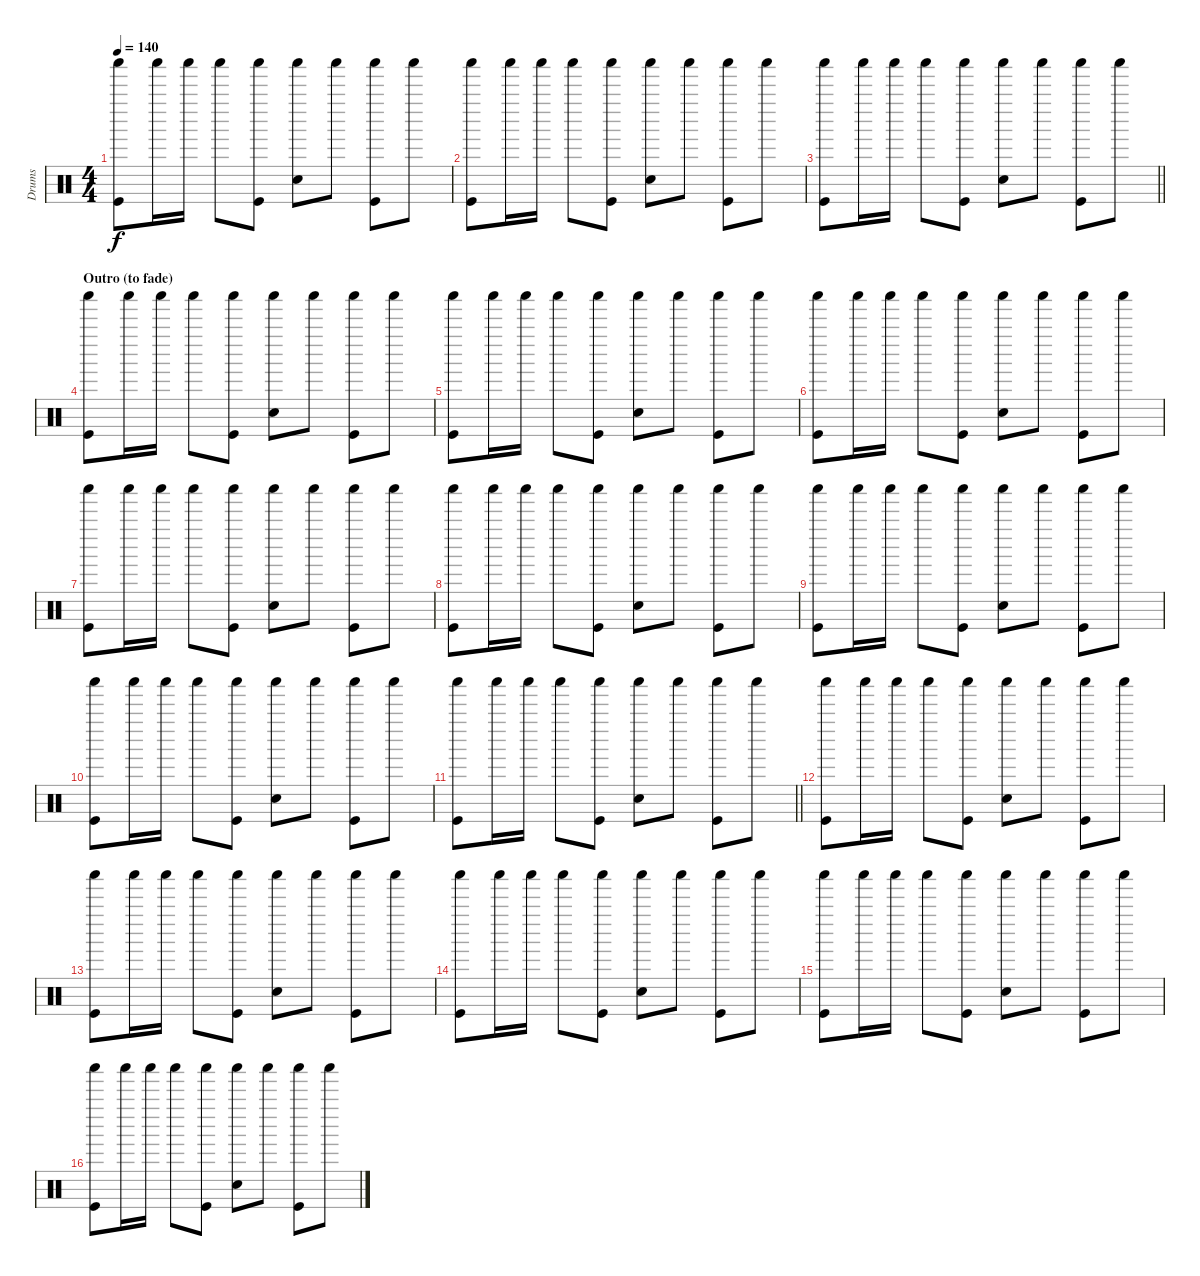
\track ("Drums" "Drums") {instrument percussion}
\staff {score}
\articulation defaults
\ts (4 4)
\tempo 140
\clef neutral
\ks c
("Shaker (hit)" "Kick (hit)").8{dy f} "Shaker (hit)".16 "Shaker (hit)".16 "Shaker (hit)".8 ("Shaker (hit)" "Kick (hit)").8 ("Shaker (hit)" "Hand Clap (hit)").8 "Shaker (hit)".8 ("Shaker (hit)" "Kick (hit)").8 "Shaker (hit)".8 |
("Shaker (hit)" "Kick (hit)").8 "Shaker (hit)".16 "Shaker (hit)".16 "Shaker (hit)".8 ("Shaker (hit)" "Kick (hit)").8 ("Shaker (hit)" "Hand Clap (hit)").8 "Shaker (hit)".8 ("Shaker (hit)" "Kick (hit)").8 "Shaker (hit)".8 |
\barLineRight lightlight
("Shaker (hit)" "Kick (hit)").8 "Shaker (hit)".16 "Shaker (hit)".16 "Shaker (hit)".8 ("Shaker (hit)" "Kick (hit)").8 ("Shaker (hit)" "Hand Clap (hit)").8 "Shaker (hit)".8 ("Shaker (hit)" "Kick (hit)").8 "Shaker (hit)".8 |
\section ("" "Outro (to fade)")
("Shaker (hit)" "Kick (hit)").8 "Shaker (hit)".16 "Shaker (hit)".16 "Shaker (hit)".8 ("Shaker (hit)" "Kick (hit)").8 ("Shaker (hit)" "Hand Clap (hit)").8 "Shaker (hit)".8 ("Shaker (hit)" "Kick (hit)").8 "Shaker (hit)".8 |
("Shaker (hit)" "Kick (hit)").8 "Shaker (hit)".16 "Shaker (hit)".16 "Shaker (hit)".8 ("Shaker (hit)" "Kick (hit)").8 ("Shaker (hit)" "Hand Clap (hit)").8 "Shaker (hit)".8 ("Shaker (hit)" "Kick (hit)").8 "Shaker (hit)".8 |
("Shaker (hit)" "Kick (hit)").8 "Shaker (hit)".16 "Shaker (hit)".16 "Shaker (hit)".8 ("Shaker (hit)" "Kick (hit)").8 ("Shaker (hit)" "Hand Clap (hit)").8 "Shaker (hit)".8 ("Shaker (hit)" "Kick (hit)").8 "Shaker (hit)".8 |
("Shaker (hit)" "Kick (hit)").8 "Shaker (hit)".16 "Shaker (hit)".16 "Shaker (hit)".8 ("Shaker (hit)" "Kick (hit)").8 ("Shaker (hit)" "Hand Clap (hit)").8 "Shaker (hit)".8 ("Shaker (hit)" "Kick (hit)").8 "Shaker (hit)".8 |
("Shaker (hit)" "Kick (hit)").8 "Shaker (hit)".16 "Shaker (hit)".16 "Shaker (hit)".8 ("Shaker (hit)" "Kick (hit)").8 ("Shaker (hit)" "Hand Clap (hit)").8 "Shaker (hit)".8 ("Shaker (hit)" "Kick (hit)").8 "Shaker (hit)".8 |
("Shaker (hit)" "Kick (hit)").8 "Shaker (hit)".16 "Shaker (hit)".16 "Shaker (hit)".8 ("Shaker (hit)" "Kick (hit)").8 ("Shaker (hit)" "Hand Clap (hit)").8 "Shaker (hit)".8 ("Shaker (hit)" "Kick (hit)").8 "Shaker (hit)".8 |
("Shaker (hit)" "Kick (hit)").8 "Shaker (hit)".16 "Shaker (hit)".16 "Shaker (hit)".8 ("Shaker (hit)" "Kick (hit)").8 ("Shaker (hit)" "Hand Clap (hit)").8 "Shaker (hit)".8 ("Shaker (hit)" "Kick (hit)").8 "Shaker (hit)".8 |
\barLineRight lightlight
("Shaker (hit)" "Kick (hit)").8 "Shaker (hit)".16 "Shaker (hit)".16 "Shaker (hit)".8 ("Shaker (hit)" "Kick (hit)").8 ("Shaker (hit)" "Hand Clap (hit)").8 "Shaker (hit)".8 ("Shaker (hit)" "Kick (hit)").8 "Shaker (hit)".8 |
("Shaker (hit)" "Kick (hit)").8 "Shaker (hit)".16 "Shaker (hit)".16 "Shaker (hit)".8 ("Shaker (hit)" "Kick (hit)").8 ("Shaker (hit)" "Hand Clap (hit)").8 "Shaker (hit)".8 ("Shaker (hit)" "Kick (hit)").8 "Shaker (hit)".8 |
("Shaker (hit)" "Kick (hit)").8 "Shaker (hit)".16 "Shaker (hit)".16 "Shaker (hit)".8 ("Shaker (hit)" "Kick (hit)").8 ("Shaker (hit)" "Hand Clap (hit)").8 "Shaker (hit)".8 ("Shaker (hit)" "Kick (hit)").8 "Shaker (hit)".8 |
("Shaker (hit)" "Kick (hit)").8 "Shaker (hit)".16 "Shaker (hit)".16 "Shaker (hit)".8 ("Shaker (hit)" "Kick (hit)").8 ("Shaker (hit)" "Hand Clap (hit)").8 "Shaker (hit)".8 ("Shaker (hit)" "Kick (hit)").8 "Shaker (hit)".8 |
("Shaker (hit)" "Kick (hit)").8 "Shaker (hit)".16 "Shaker (hit)".16 "Shaker (hit)".8 ("Shaker (hit)" "Kick (hit)").8 ("Shaker (hit)" "Hand Clap (hit)").8 "Shaker (hit)".8 ("Shaker (hit)" "Kick (hit)").8 "Shaker (hit)".8 |
("Shaker (hit)" "Kick (hit)").8 "Shaker (hit)".16 "Shaker (hit)".16 "Shaker (hit)".8 ("Shaker (hit)" "Kick (hit)").8 ("Shaker (hit)" "Hand Clap (hit)").8 "Shaker (hit)".8 ("Shaker (hit)" "Kick (hit)").8 "Shaker (hit)".8
